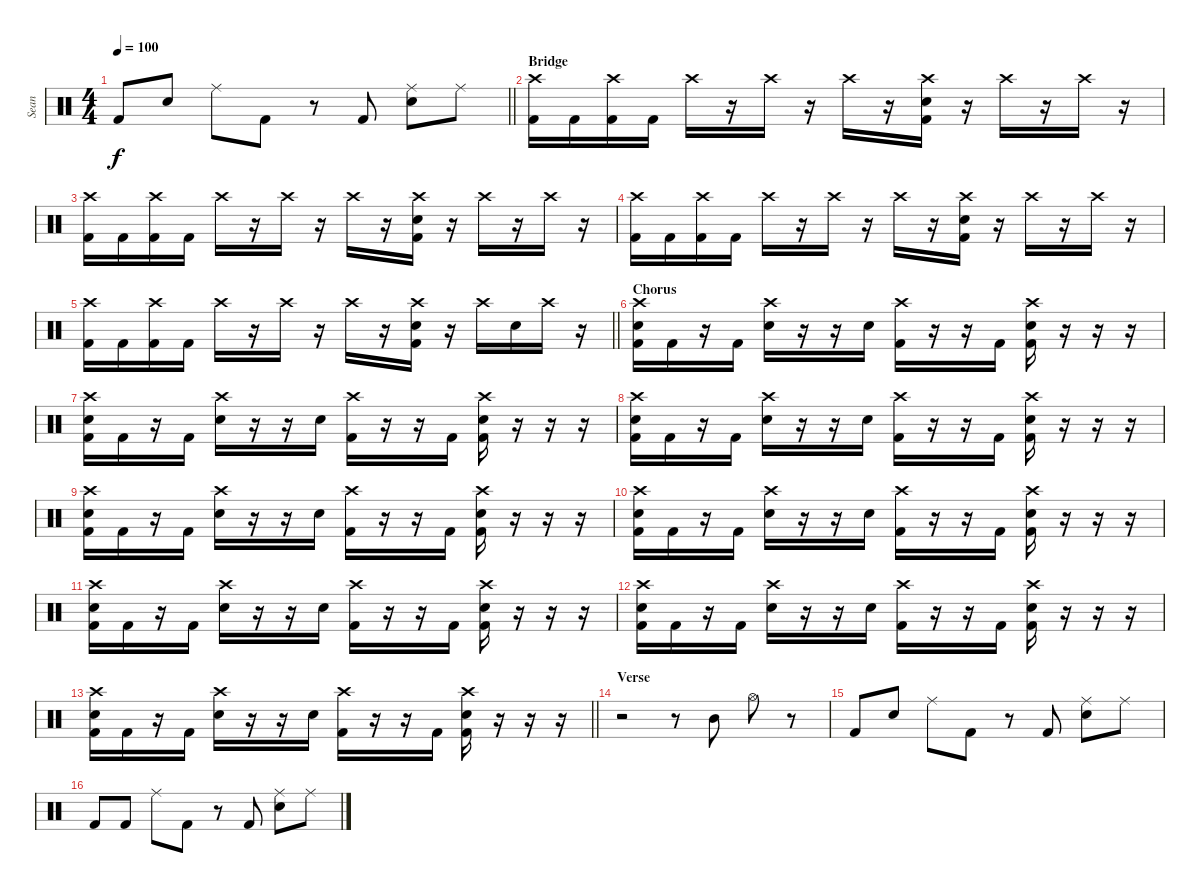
\track ("Sean" "Sean") {instrument percussion}
\staff {score}
\articulation defaults
\ts (4 4)
\tempo 100
\clef neutral
\barLineRight lightlight
\ks c "Kick (hit) 2".8{dy f} "Snare (hit) 2".8 "Ride (middle)".8 "Kick (hit) 2".8
r.8 "Kick (hit) 2".8 ("Ride (middle)" "Snare (hit) 2").8 "Ride (middle)".8 |
\section ("" "Bridge")
("Crash high (hit)" "Kick (hit) 2").16 "Kick (hit) 2".16 ("Crash high (hit)" "Kick (hit) 2").16 "Kick (hit) 2".16 "Crash high (hit)".16 r.16 "Crash high (hit)".16 r.16 "Crash high (hit)".16 r.16 ("Crash high (hit)" "Snare (hit) 2" "Kick (hit) 2").16 r.16 "Crash high (hit)".16 r.16 "Crash high (hit)".16 r.16 |
("Crash high (hit)" "Kick (hit) 2").16 "Kick (hit) 2".16 ("Crash high (hit)" "Kick (hit) 2").16 "Kick (hit) 2".16 "Crash high (hit)".16 r.16 "Crash high (hit)".16 r.16 "Crash high (hit)".16 r.16 ("Crash high (hit)" "Snare (hit) 2" "Kick (hit) 2").16 r.16 "Crash high (hit)".16 r.16 "Crash high (hit)".16 r.16 |
("Crash high (hit)" "Kick (hit) 2").16 "Kick (hit) 2".16 ("Crash high (hit)" "Kick (hit) 2").16 "Kick (hit) 2".16 "Crash high (hit)".16 r.16 "Crash high (hit)".16 r.16 "Crash high (hit)".16 r.16 ("Crash high (hit)" "Snare (hit) 2" "Kick (hit) 2").16 r.16 "Crash high (hit)".16 r.16 "Crash high (hit)".16 r.16 |
\barLineRight lightlight
("Crash high (hit)" "Kick (hit) 2").16 "Kick (hit) 2".16 ("Crash high (hit)" "Kick (hit) 2").16 "Kick (hit) 2".16 "Crash high (hit)".16 r.16 "Crash high (hit)".16 r.16 "Crash high (hit)".16 r.16 ("Crash high (hit)" "Snare (hit) 2" "Kick (hit) 2").16 r.16 "Crash high (hit)".16 "Snare (hit) 2".16 "Crash high (hit)".16 r.16 |
\section ("" "Chorus")
("Crash high (hit)" "Snare (hit) 2" "Kick (hit) 2").16 "Kick (hit) 2".16 r.16 "Kick (hit) 2".16 ("Crash high (hit)" "Snare (hit) 2").16 r.16 r.16 "Snare (hit) 2".16 ("Crash high (hit)" "Kick (hit) 2").16 r.16 r.16 "Kick (hit) 2".16 ("Crash high (hit)" "Snare (hit) 2" "Kick (hit) 2").16 r.16 r.16 r.16 |
("Crash high (hit)" "Snare (hit) 2" "Kick (hit) 2").16 "Kick (hit) 2".16 r.16 "Kick (hit) 2".16 ("Crash high (hit)" "Snare (hit) 2").16 r.16 r.16 "Snare (hit) 2".16 ("Crash high (hit)" "Kick (hit) 2").16 r.16 r.16 "Kick (hit) 2".16 ("Crash high (hit)" "Snare (hit) 2" "Kick (hit) 2").16 r.16 r.16 r.16 |
("Crash high (hit)" "Snare (hit) 2" "Kick (hit) 2").16 "Kick (hit) 2".16 r.16 "Kick (hit) 2".16 ("Crash high (hit)" "Snare (hit) 2").16 r.16 r.16 "Snare (hit) 2".16 ("Crash high (hit)" "Kick (hit) 2").16 r.16 r.16 "Kick (hit) 2".16 ("Crash high (hit)" "Snare (hit) 2" "Kick (hit) 2").16 r.16 r.16 r.16 |
("Crash high (hit)" "Snare (hit) 2" "Kick (hit) 2").16 "Kick (hit) 2".16 r.16 "Kick (hit) 2".16 ("Crash high (hit)" "Snare (hit) 2").16 r.16 r.16 "Snare (hit) 2".16 ("Crash high (hit)" "Kick (hit) 2").16 r.16 r.16 "Kick (hit) 2".16 ("Crash high (hit)" "Snare (hit) 2" "Kick (hit) 2").16 r.16 r.16 r.16 |
("Crash high (hit)" "Snare (hit) 2" "Kick (hit) 2").16 "Kick (hit) 2".16 r.16 "Kick (hit) 2".16 ("Crash high (hit)" "Snare (hit) 2").16 r.16 r.16 "Snare (hit) 2".16 ("Crash high (hit)" "Kick (hit) 2").16 r.16 r.16 "Kick (hit) 2".16 ("Crash high (hit)" "Snare (hit) 2" "Kick (hit) 2").16 r.16 r.16 r.16 |
("Crash high (hit)" "Snare (hit) 2" "Kick (hit) 2").16 "Kick (hit) 2".16 r.16 "Kick (hit) 2".16 ("Crash high (hit)" "Snare (hit) 2").16 r.16 r.16 "Snare (hit) 2".16 ("Crash high (hit)" "Kick (hit) 2").16 r.16 r.16 "Kick (hit) 2".16 ("Crash high (hit)" "Snare (hit) 2" "Kick (hit) 2").16 r.16 r.16 r.16 |
("Crash high (hit)" "Snare (hit) 2" "Kick (hit) 2").16 "Kick (hit) 2".16 r.16 "Kick (hit) 2".16 ("Crash high (hit)" "Snare (hit) 2").16 r.16 r.16 "Snare (hit) 2".16 ("Crash high (hit)" "Kick (hit) 2").16 r.16 r.16 "Kick (hit) 2".16 ("Crash high (hit)" "Snare (hit) 2" "Kick (hit) 2").16 r.16 r.16 r.16 |
\barLineRight lightlight
("Crash high (hit)" "Snare (hit) 2" "Kick (hit) 2").16 "Kick (hit) 2".16 r.16 "Kick (hit) 2".16 ("Crash high (hit)" "Snare (hit) 2").16 r.16 r.16 "Snare (hit) 2".16 ("Crash high (hit)" "Kick (hit) 2").16 r.16 r.16 "Kick (hit) 2".16 ("Crash high (hit)" "Snare (hit) 2" "Kick (hit) 2").16 r.16 r.16 r.16 |
\section ("" "Verse")
r.2 r.8 "Mid Tom (hit)".8 "Hi-Hat (open)".8 r.8 |
"Kick (hit) 2".8 "Snare (hit) 2".8 "Ride (middle)".8 "Kick (hit) 2".8 r.8 "Kick (hit) 2".8 ("Ride (middle)" "Snare (hit) 2").8 "Ride (middle)".8 |
"Kick (hit) 2".8 "Kick (hit) 2".8 "Ride (middle)".8 "Kick (hit) 2".8 r.8 "Kick (hit) 2".8 ("Ride (middle)" "Snare (hit) 2").8 "Ride (middle)".8
